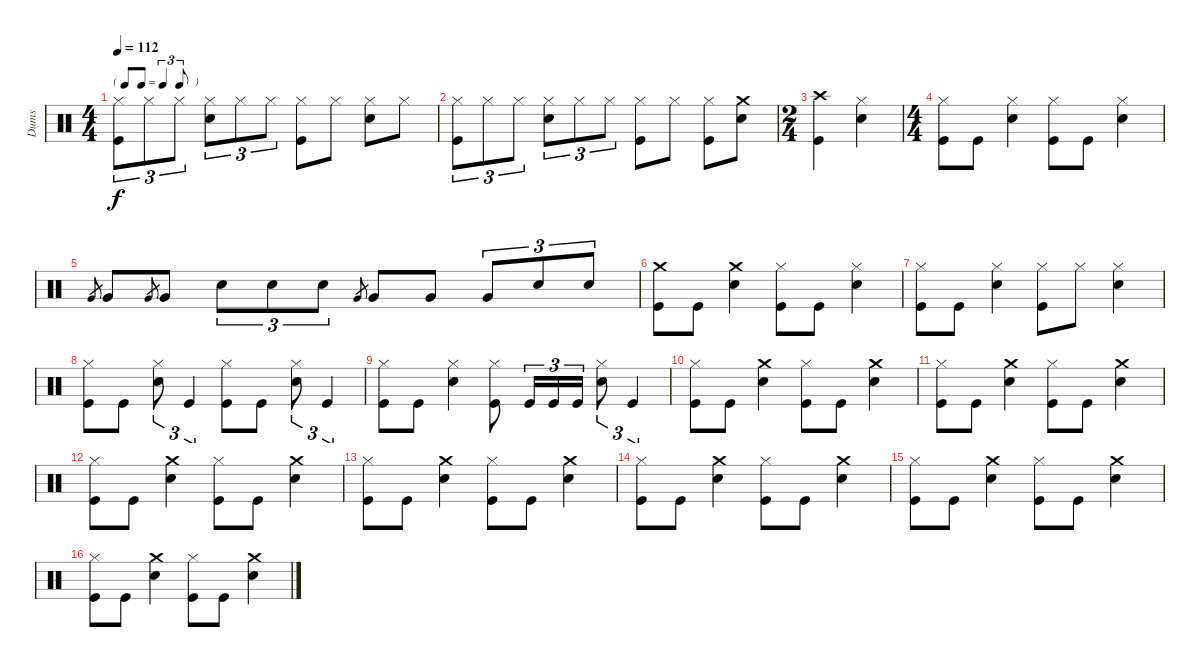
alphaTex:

\track ("Dums" "Dums") {instrument percussion}
\staff {score}
\articulation defaults
\ts (4 4)
\tf triplet8th
\tempo 112
\clef neutral
\ks c
("Kick (hit)" "Hi-Hat (closed)").8{tu (3 2) dy f} "Hi-Hat (closed)".8{tu (3 2)} "Hi-Hat (closed)".8{tu (3 2)} ("Electric Snare (hit)" "Hi-Hat (closed)").8{tu (3 2)} "Hi-Hat (closed)".8{tu (3 2)} "Hi-Hat (closed)".8{tu (3 2)} ("Kick (hit)" "Hi-Hat (closed)").8 "Hi-Hat (closed)".8 ("Electric Snare (hit)" "Hi-Hat (closed)").8 "Hi-Hat (closed)".8 |
("Kick (hit)" "Hi-Hat (closed)").8{tu (3 2)} "Hi-Hat (closed)".8{tu (3 2)} "Hi-Hat (closed)".8{tu (3 2)} ("Electric Snare (hit)" "Hi-Hat (closed)").8{tu (3 2)} "Hi-Hat (closed)".8{tu (3 2)} "Hi-Hat (closed)".8{tu (3 2)} ("Kick (hit)" "Hi-Hat (closed)").8 "Hi-Hat (closed)".8 ("Kick (hit)" "Hi-Hat (closed)").8 ("Electric Snare (hit)" "Crash medium (hit)").8 |
\ts (2 4)
("Kick (hit)" "Crash high (hit)").4 ("Electric Snare (hit)" "Hi-Hat (closed)").4 |
\ts (4 4)
("Kick (hit)" "Hi-Hat (closed)").8 "Kick (hit)".8 ("Electric Snare (hit)" "Hi-Hat (closed)").4 ("Kick (hit)" "Hi-Hat (closed)").8 "Kick (hit)".8 ("Electric Snare (hit)" "Hi-Hat (closed)").4 |
"Very Low Tom (hit)".8{gr} "Very Low Tom (hit)".8 "Very Low Tom (hit)".8{gr} "Very Low Tom (hit)".8 "Electric Snare (hit)".8{tu (3 2)} "Electric Snare (hit)".8{tu (3 2)} "Electric Snare (hit)".8{tu (3 2)} "Very Low Tom (hit)".8{gr} "Very Low Tom (hit)".8 "Very Low Tom (hit)".8 "Very Low Tom (hit)".8{tu (3 2)} "Electric Snare (hit)".8{tu (3 2)} "Electric Snare (hit)".8{tu (3 2)} |
("Kick (hit)" "Crash medium (hit)").8 "Kick (hit)".8 ("Electric Snare (hit)" "Crash medium (hit)").4 ("Kick (hit)" "Hi-Hat (closed)").8 "Kick (hit)".8 ("Electric Snare (hit)" "Hi-Hat (closed)").4 |
("Kick (hit)" "Hi-Hat (closed)").8 "Kick (hit)".8 ("Electric Snare (hit)" "Hi-Hat (closed)").4 ("Kick (hit)" "Hi-Hat (closed)").8 "Hi-Hat (closed)".8 ("Electric Snare (hit)" "Hi-Hat (closed)").4 |
("Kick (hit)" "Hi-Hat (closed)").8 "Kick (hit)".8 ("Electric Snare (hit)" "Hi-Hat (closed)").8{tu (3 2)} "Kick (hit)".4{tu (3 2)} ("Kick (hit)" "Hi-Hat (closed)").8 "Kick (hit)".8 ("Electric Snare (hit)" "Hi-Hat (closed)").8{tu (3 2)} "Kick (hit)".4{tu (3 2)} |
("Kick (hit)" "Hi-Hat (closed)").8 "Kick (hit)".8 ("Electric Snare (hit)" "Hi-Hat (closed)").4 ("Kick (hit)" "Hi-Hat (closed)").8 "Kick (hit)".16{tu (3 2)} "Kick (hit)".16{tu (3 2)} "Kick (hit)".16{tu (3 2)} ("Electric Snare (hit)" "Hi-Hat (closed)").8{tu (3 2)} "Kick (hit)".4{tu (3 2)} |
("Kick (hit)" "Hi-Hat (closed)").8 "Kick (hit)".8 ("Electric Snare (hit)" "Crash medium (hit)").4 ("Kick (hit)" "Hi-Hat (closed)").8 "Kick (hit)".8 ("Electric Snare (hit)" "Crash medium (hit)").4 |
("Kick (hit)" "Hi-Hat (closed)").8 "Kick (hit)".8 ("Electric Snare (hit)" "Crash medium (hit)").4 ("Kick (hit)" "Hi-Hat (closed)").8 "Kick (hit)".8 ("Electric Snare (hit)" "Crash medium (hit)").4 |
("Kick (hit)" "Hi-Hat (closed)").8 "Kick (hit)".8 ("Electric Snare (hit)" "Crash medium (hit)").4 ("Kick (hit)" "Hi-Hat (closed)").8 "Kick (hit)".8 ("Electric Snare (hit)" "Crash medium (hit)").4 |
("Kick (hit)" "Hi-Hat (closed)").8 "Kick (hit)".8 ("Electric Snare (hit)" "Crash medium (hit)").4 ("Kick (hit)" "Hi-Hat (closed)").8 "Kick (hit)".8 ("Electric Snare (hit)" "Crash medium (hit)").4 |
("Kick (hit)" "Hi-Hat (closed)").8 "Kick (hit)".8 ("Electric Snare (hit)" "Crash medium (hit)").4 ("Kick (hit)" "Hi-Hat (closed)").8 "Kick (hit)".8 ("Electric Snare (hit)" "Crash medium (hit)").4 |
("Kick (hit)" "Hi-Hat (closed)").8 "Kick (hit)".8 ("Electric Snare (hit)" "Crash medium (hit)").4 ("Kick (hit)" "Hi-Hat (closed)").8 "Kick (hit)".8 ("Electric Snare (hit)" "Crash medium (hit)").4 |
("Kick (hit)" "Hi-Hat (closed)").8 "Kick (hit)".8 ("Electric Snare (hit)" "Crash medium (hit)").4 ("Kick (hit)" "Hi-Hat (closed)").8 "Kick (hit)".8 ("Electric Snare (hit)" "Crash medium (hit)").4
